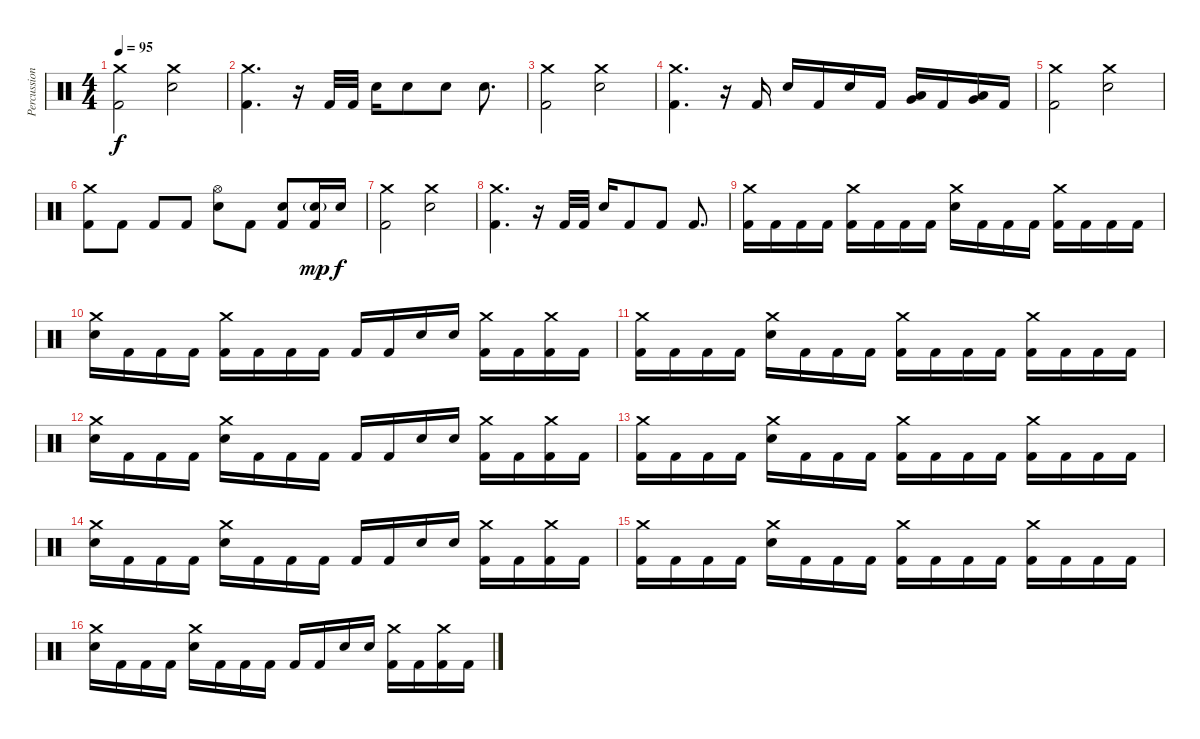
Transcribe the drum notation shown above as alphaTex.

\track ("Percussion" "Percussion") {instrument percussion}
\staff {score}
\articulation defaults
\ts (4 4)
\tempo 95
\clef neutral
\ks c
("Crash medium (hit)" "Kick (hit) 2").2{dy f} ("Crash medium (hit)" "Electric Snare (hit)").2 |
("Crash medium (hit)" "Kick (hit) 2").4{d} r.16 "Kick (hit) 2".32 "Kick (hit) 2".32 "Electric Snare (hit)".16 "Electric Snare (hit)".8 "Electric Snare (hit)".8 "Electric Snare (hit)".8{d} |
("Crash medium (hit)" "Kick (hit) 2").2 ("Crash medium (hit)" "Electric Snare (hit)").2 |
("Crash medium (hit)" "Kick (hit) 2").4{d} r.16 "Kick (hit) 2".16 "Electric Snare (hit)".16 "Kick (hit) 2".16 "Electric Snare (hit)".16 "Kick (hit) 2".16 ("Low Tom (hit)" "Very Low Tom (hit)").16 "Kick (hit) 2".16 ("Very Low Tom (hit)" "Low Floor Tom (hit)").16 "Kick (hit) 2".16 |
("Crash medium (hit)" "Kick (hit) 2").2 ("Crash medium (hit)" "Electric Snare (hit)").2 |
("Crash medium (hit)" "Kick (hit) 2").8 "Kick (hit) 2".8 "Kick (hit) 2".8 "Kick (hit) 2".8 ("Hi-Hat (open)" "Electric Snare (hit)").8 "Kick (hit) 2".8 ("Electric Snare (hit)" "Kick (hit) 2").8 ("Electric Snare (hit)"{g} "Kick (hit) 2").16{dy mp} "Electric Snare (hit)".16{dy f} |
("Crash medium (hit)" "Kick (hit) 2").2 ("Crash medium (hit)" "Electric Snare (hit)").2 |
("Crash medium (hit)" "Kick (hit) 2").4{d} r.16 "Kick (hit) 2".32 "Kick (hit) 2".32 "Electric Snare (hit)".16 "Kick (hit) 2".8 "Kick (hit) 2".8 "Kick (hit) 2".8{d} |
("Crash medium (hit)" "Kick (hit) 2").16 "Kick (hit) 2".16 "Kick (hit) 2".16 "Kick (hit) 2".16 ("Crash medium (hit)" "Kick (hit) 2").16 "Kick (hit) 2".16 "Kick (hit) 2".16 "Kick (hit) 2".16 ("Crash medium (hit)" "Electric Snare (hit)").16 "Kick (hit) 2".16 "Kick (hit) 2".16 "Kick (hit) 2".16 ("Crash medium (hit)" "Kick (hit) 2").16 "Kick (hit) 2".16 "Kick (hit) 2".16 "Kick (hit) 2".16 |
("Crash medium (hit)" "Electric Snare (hit)").16 "Kick (hit) 2".16 "Kick (hit) 2".16 "Kick (hit) 2".16 ("Crash medium (hit)" "Kick (hit) 2").16 "Kick (hit) 2".16 "Kick (hit) 2".16 "Kick (hit) 2".16 "Kick (hit) 2".16 "Kick (hit) 2".16 "Electric Snare (hit)".16 "Electric Snare (hit)".16 ("Crash medium (hit)" "Kick (hit) 2").16 "Kick (hit) 2".16 ("Crash medium (hit)" "Kick (hit) 2").16 "Kick (hit) 2".16 |
("Crash medium (hit)" "Kick (hit) 2").16 "Kick (hit) 2".16 "Kick (hit) 2".16 "Kick (hit) 2".16 ("Crash medium (hit)" "Electric Snare (hit)").16 "Kick (hit) 2".16 "Kick (hit) 2".16 "Kick (hit) 2".16 ("Crash medium (hit)" "Kick (hit) 2").16 "Kick (hit) 2".16 "Kick (hit) 2".16 "Kick (hit) 2".16 ("Crash medium (hit)" "Kick (hit) 2").16 "Kick (hit) 2".16 "Kick (hit) 2".16 "Kick (hit) 2".16 |
("Crash medium (hit)" "Electric Snare (hit)").16 "Kick (hit) 2".16 "Kick (hit) 2".16 "Kick (hit) 2".16 ("Crash medium (hit)" "Electric Snare (hit)").16 "Kick (hit) 2".16 "Kick (hit) 2".16 "Kick (hit) 2".16 "Kick (hit) 2".16 "Kick (hit) 2".16 "Electric Snare (hit)".16 "Electric Snare (hit)".16 ("Crash medium (hit)" "Kick (hit) 2").16 "Kick (hit) 2".16 ("Crash medium (hit)" "Kick (hit) 2").16 "Kick (hit) 2".16 |
("Crash medium (hit)" "Kick (hit) 2").16 "Kick (hit) 2".16 "Kick (hit) 2".16 "Kick (hit) 2".16 ("Crash medium (hit)" "Electric Snare (hit)").16 "Kick (hit) 2".16 "Kick (hit) 2".16 "Kick (hit) 2".16 ("Crash medium (hit)" "Kick (hit) 2").16 "Kick (hit) 2".16 "Kick (hit) 2".16 "Kick (hit) 2".16 ("Crash medium (hit)" "Kick (hit) 2").16 "Kick (hit) 2".16 "Kick (hit) 2".16 "Kick (hit) 2".16 |
("Crash medium (hit)" "Electric Snare (hit)").16 "Kick (hit) 2".16 "Kick (hit) 2".16 "Kick (hit) 2".16 ("Crash medium (hit)" "Electric Snare (hit)").16 "Kick (hit) 2".16 "Kick (hit) 2".16 "Kick (hit) 2".16 "Kick (hit) 2".16 "Kick (hit) 2".16 "Electric Snare (hit)".16 "Electric Snare (hit)".16 ("Crash medium (hit)" "Kick (hit) 2").16 "Kick (hit) 2".16 ("Crash medium (hit)" "Kick (hit) 2").16 "Kick (hit) 2".16 |
("Crash medium (hit)" "Kick (hit) 2").16 "Kick (hit) 2".16 "Kick (hit) 2".16 "Kick (hit) 2".16 ("Crash medium (hit)" "Electric Snare (hit)").16 "Kick (hit) 2".16 "Kick (hit) 2".16 "Kick (hit) 2".16 ("Crash medium (hit)" "Kick (hit) 2").16 "Kick (hit) 2".16 "Kick (hit) 2".16 "Kick (hit) 2".16 ("Crash medium (hit)" "Kick (hit) 2").16 "Kick (hit) 2".16 "Kick (hit) 2".16 "Kick (hit) 2".16 |
("Crash medium (hit)" "Electric Snare (hit)").16 "Kick (hit) 2".16 "Kick (hit) 2".16 "Kick (hit) 2".16 ("Crash medium (hit)" "Electric Snare (hit)").16 "Kick (hit) 2".16 "Kick (hit) 2".16 "Kick (hit) 2".16 "Kick (hit) 2".16 "Kick (hit) 2".16 "Electric Snare (hit)".16 "Electric Snare (hit)".16 ("Crash medium (hit)" "Kick (hit) 2").16 "Kick (hit) 2".16 ("Crash medium (hit)" "Kick (hit) 2").16 "Kick (hit) 2".16
